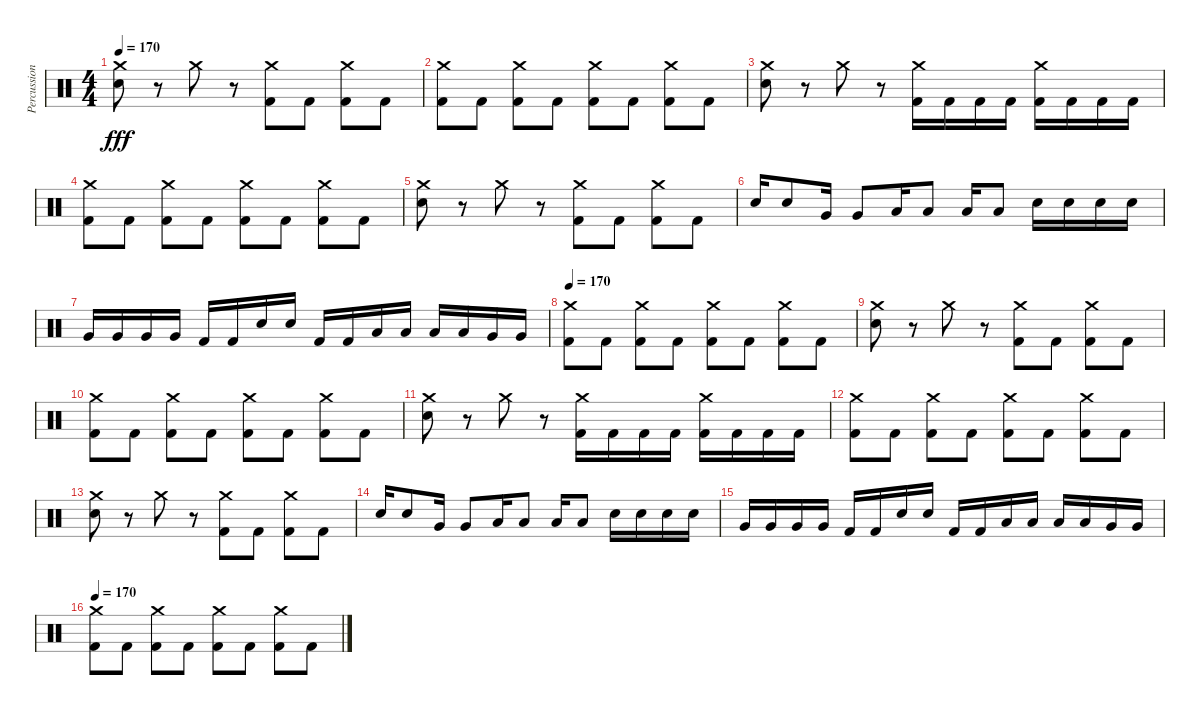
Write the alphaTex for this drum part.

\track ("Percussion" "Percussion") {instrument percussion}
\staff {score}
\articulation defaults
\ts (4 4)
\tempo 170
\clef neutral
\ks c
("Crash medium (hit)" "Electric Snare (hit)").8{dy fff} r.8 "Crash medium (hit)".8 r.8 ("Crash medium (hit)" "Kick (hit) 2").8 "Kick (hit) 2".8 ("Crash medium (hit)" "Kick (hit) 2").8 "Kick (hit) 2".8 |
("Crash medium (hit)" "Kick (hit) 2").8 "Kick (hit) 2".8 ("Crash medium (hit)" "Kick (hit) 2").8 "Kick (hit) 2".8 ("Crash medium (hit)" "Kick (hit) 2").8 "Kick (hit) 2".8 ("Crash medium (hit)" "Kick (hit) 2").8 "Kick (hit) 2".8 |
("Crash medium (hit)" "Electric Snare (hit)").8 r.8 "Crash medium (hit)".8 r.8 ("Crash medium (hit)" "Kick (hit) 2").16 "Kick (hit) 2".16 "Kick (hit) 2".16 "Kick (hit) 2".16 ("Crash medium (hit)" "Kick (hit) 2").16 "Kick (hit) 2".16 "Kick (hit) 2".16 "Kick (hit) 2".16 |
("Crash medium (hit)" "Kick (hit) 2").8 "Kick (hit) 2".8 ("Crash medium (hit)" "Kick (hit) 2").8 "Kick (hit) 2".8 ("Crash medium (hit)" "Kick (hit) 2").8 "Kick (hit) 2".8 ("Crash medium (hit)" "Kick (hit) 2").8 "Kick (hit) 2".8 |
("Crash medium (hit)" "Electric Snare (hit)").8 r.8 "Crash medium (hit)".8 r.8 ("Crash medium (hit)" "Kick (hit) 2").8 "Kick (hit) 2".8 ("Crash medium (hit)" "Kick (hit) 2").8 "Kick (hit) 2".8 |
"Electric Snare (hit)".16 "Electric Snare (hit)".8 "Very Low Tom (hit)".16 "Very Low Tom (hit)".8 "Low Tom (hit)".16 "Low Tom (hit)".8 "Low Floor Tom (hit)".16 "Low Floor Tom (hit)".8 "Electric Snare (hit)".16 "Electric Snare (hit)".16 "Electric Snare (hit)".16 "Electric Snare (hit)".16 |
"Very Low Tom (hit)".16 "Very Low Tom (hit)".16 "Very Low Tom (hit)".16 "Very Low Tom (hit)".16 "Kick (hit) 2".16 "Kick (hit) 2".16 "Electric Snare (hit)".16 "Electric Snare (hit)".16 "Kick (hit) 2".16 "Kick (hit) 2".16 "Low Tom (hit)".16 "Low Tom (hit)".16 "Low Tom (hit)".16 "Low Tom (hit)".16 "Very Low Tom (hit)".16 "Very Low Tom (hit)".16 |
\tempo 170
("Crash medium (hit)" "Kick (hit) 2").8 "Kick (hit) 2".8 ("Crash medium (hit)" "Kick (hit) 2").8 "Kick (hit) 2".8 ("Crash medium (hit)" "Kick (hit) 2").8 "Kick (hit) 2".8 ("Crash medium (hit)" "Kick (hit) 2").8 "Kick (hit) 2".8 |
("Crash medium (hit)" "Electric Snare (hit)").8 r.8 "Crash medium (hit)".8 r.8 ("Crash medium (hit)" "Kick (hit) 2").8 "Kick (hit) 2".8 ("Crash medium (hit)" "Kick (hit) 2").8 "Kick (hit) 2".8 |
("Crash medium (hit)" "Kick (hit) 2").8 "Kick (hit) 2".8 ("Crash medium (hit)" "Kick (hit) 2").8 "Kick (hit) 2".8 ("Crash medium (hit)" "Kick (hit) 2").8 "Kick (hit) 2".8 ("Crash medium (hit)" "Kick (hit) 2").8 "Kick (hit) 2".8 |
("Crash medium (hit)" "Electric Snare (hit)").8 r.8 "Crash medium (hit)".8 r.8 ("Crash medium (hit)" "Kick (hit) 2").16 "Kick (hit) 2".16 "Kick (hit) 2".16 "Kick (hit) 2".16 ("Crash medium (hit)" "Kick (hit) 2").16 "Kick (hit) 2".16 "Kick (hit) 2".16 "Kick (hit) 2".16 |
("Crash medium (hit)" "Kick (hit) 2").8 "Kick (hit) 2".8 ("Crash medium (hit)" "Kick (hit) 2").8 "Kick (hit) 2".8 ("Crash medium (hit)" "Kick (hit) 2").8 "Kick (hit) 2".8 ("Crash medium (hit)" "Kick (hit) 2").8 "Kick (hit) 2".8 |
("Crash medium (hit)" "Electric Snare (hit)").8 r.8 "Crash medium (hit)".8 r.8 ("Crash medium (hit)" "Kick (hit) 2").8 "Kick (hit) 2".8 ("Crash medium (hit)" "Kick (hit) 2").8 "Kick (hit) 2".8 |
"Electric Snare (hit)".16 "Electric Snare (hit)".8 "Very Low Tom (hit)".16 "Very Low Tom (hit)".8 "Low Tom (hit)".16 "Low Tom (hit)".8 "Low Floor Tom (hit)".16 "Low Floor Tom (hit)".8 "Electric Snare (hit)".16 "Electric Snare (hit)".16 "Electric Snare (hit)".16 "Electric Snare (hit)".16 |
"Very Low Tom (hit)".16 "Very Low Tom (hit)".16 "Very Low Tom (hit)".16 "Very Low Tom (hit)".16 "Kick (hit) 2".16 "Kick (hit) 2".16 "Electric Snare (hit)".16 "Electric Snare (hit)".16 "Kick (hit) 2".16 "Kick (hit) 2".16 "Low Tom (hit)".16 "Low Tom (hit)".16 "Low Tom (hit)".16 "Low Tom (hit)".16 "Very Low Tom (hit)".16 "Very Low Tom (hit)".16 |
\tempo 170
("Crash medium (hit)" "Kick (hit) 2").8 "Kick (hit) 2".8 ("Crash medium (hit)" "Kick (hit) 2").8 "Kick (hit) 2".8 ("Crash medium (hit)" "Kick (hit) 2").8 "Kick (hit) 2".8 ("Crash medium (hit)" "Kick (hit) 2").8 "Kick (hit) 2".8
